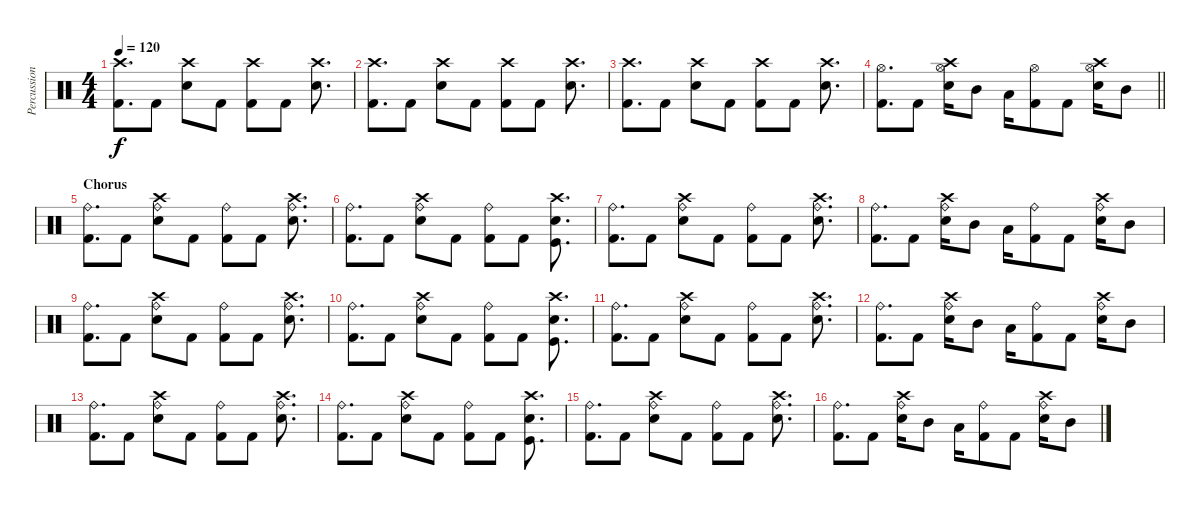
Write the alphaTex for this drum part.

\track ("Percussion" "Percussion") {instrument percussion}
\staff {score}
\articulation defaults
\ts (4 4)
\tempo 120
\clef neutral
\ks c
("Crash high (hit)" "Kick (hit) 2").8{d dy f} "Kick (hit) 2".8 ("Crash high (hit)" "Electric Snare (hit)").8 "Kick (hit) 2".8 ("Crash high (hit)" "Kick (hit) 2").8 "Kick (hit) 2".8 ("Crash high (hit)" "Electric Snare (hit)").8{d} |
("Crash high (hit)" "Kick (hit) 2").8{d} "Kick (hit) 2".8 ("Crash high (hit)" "Electric Snare (hit)").8 "Kick (hit) 2".8 ("Crash high (hit)" "Kick (hit) 2").8 "Kick (hit) 2".8 ("Crash high (hit)" "Electric Snare (hit)").8{d} |
("Crash high (hit)" "Kick (hit) 2").8{d} "Kick (hit) 2".8 ("Crash high (hit)" "Electric Snare (hit)").8 "Kick (hit) 2".8 ("Crash high (hit)" "Kick (hit) 2").8 "Kick (hit) 2".8 ("Crash high (hit)" "Electric Snare (hit)").8{d} |
\barLineRight lightlight
("Hi-Hat (open)" "Kick (hit) 2").8{d} "Kick (hit) 2".8 ("Hi-Hat (open)" "Crash high (hit)" "Electric Snare (hit)").16 "Mid Tom (hit)".8 "Low Tom (hit)".16 ("Hi-Hat (open)" "Kick (hit) 2").8 "Kick (hit) 2".8 ("Hi-Hat (open)" "Crash high (hit)" "Electric Snare (hit)").16 "Mid Tom (hit)".8 |
\section ("" "Chorus")
("Ride (bell)" "Kick (hit) 2").8{d} "Kick (hit) 2".8 ("Ride (bell)" "Crash high (hit)" "Electric Snare (hit)").8 "Kick (hit) 2".8 ("Ride (bell)" "Kick (hit) 2").8 "Kick (hit) 2".8 ("Ride (bell)" "Crash high (hit)" "Electric Snare (hit)").8{d} |
("Ride (bell)" "Kick (hit) 2").8{d} "Kick (hit) 2".8 ("Ride (bell)" "Crash high (hit)" "Electric Snare (hit)").8 "Kick (hit) 2".8 ("Ride (bell)" "Kick (hit) 2").8 "Kick (hit) 2".8 ("Kick (hit)" "Crash high (hit)" "Electric Snare (hit)").8{d} |
("Ride (bell)" "Kick (hit) 2").8{d} "Kick (hit) 2".8 ("Ride (bell)" "Crash high (hit)" "Electric Snare (hit)").8 "Kick (hit) 2".8 ("Ride (bell)" "Kick (hit) 2").8 "Kick (hit) 2".8 ("Ride (bell)" "Crash high (hit)" "Electric Snare (hit)").8{d} |
("Ride (bell)" "Kick (hit) 2").8{d} "Kick (hit) 2".8 ("Ride (bell)" "Crash high (hit)" "Electric Snare (hit)").16 "Mid Tom (hit)".8 "Low Tom (hit)".16 ("Ride (bell)" "Kick (hit) 2").8 "Kick (hit) 2".8 ("Ride (bell)" "Crash high (hit)" "Electric Snare (hit)").16 "Mid Tom (hit)".8 |
("Ride (bell)" "Kick (hit) 2").8{d} "Kick (hit) 2".8 ("Ride (bell)" "Crash high (hit)" "Electric Snare (hit)").8 "Kick (hit) 2".8 ("Ride (bell)" "Kick (hit) 2").8 "Kick (hit) 2".8 ("Ride (bell)" "Crash high (hit)" "Electric Snare (hit)").8{d} |
("Ride (bell)" "Kick (hit) 2").8{d} "Kick (hit) 2".8 ("Ride (bell)" "Crash high (hit)" "Electric Snare (hit)").8 "Kick (hit) 2".8 ("Ride (bell)" "Kick (hit) 2").8 "Kick (hit) 2".8 ("Kick (hit)" "Crash high (hit)" "Electric Snare (hit)").8{d} |
("Ride (bell)" "Kick (hit) 2").8{d} "Kick (hit) 2".8 ("Ride (bell)" "Crash high (hit)" "Electric Snare (hit)").8 "Kick (hit) 2".8 ("Ride (bell)" "Kick (hit) 2").8 "Kick (hit) 2".8 ("Ride (bell)" "Crash high (hit)" "Electric Snare (hit)").8{d} |
("Ride (bell)" "Kick (hit) 2").8{d} "Kick (hit) 2".8 ("Ride (bell)" "Crash high (hit)" "Electric Snare (hit)").16 "Mid Tom (hit)".8 "Low Tom (hit)".16 ("Ride (bell)" "Kick (hit) 2").8 "Kick (hit) 2".8 ("Ride (bell)" "Crash high (hit)" "Electric Snare (hit)").16 "Mid Tom (hit)".8 |
("Ride (bell)" "Kick (hit) 2").8{d} "Kick (hit) 2".8 ("Ride (bell)" "Crash high (hit)" "Electric Snare (hit)").8 "Kick (hit) 2".8 ("Ride (bell)" "Kick (hit) 2").8 "Kick (hit) 2".8 ("Ride (bell)" "Crash high (hit)" "Electric Snare (hit)").8{d} |
("Ride (bell)" "Kick (hit) 2").8{d} "Kick (hit) 2".8 ("Ride (bell)" "Crash high (hit)" "Electric Snare (hit)").8 "Kick (hit) 2".8 ("Ride (bell)" "Kick (hit) 2").8 "Kick (hit) 2".8 ("Kick (hit)" "Crash high (hit)" "Electric Snare (hit)").8{d} |
("Ride (bell)" "Kick (hit) 2").8{d} "Kick (hit) 2".8 ("Ride (bell)" "Crash high (hit)" "Electric Snare (hit)").8 "Kick (hit) 2".8 ("Ride (bell)" "Kick (hit) 2").8 "Kick (hit) 2".8 ("Ride (bell)" "Crash high (hit)" "Electric Snare (hit)").8{d} |
("Ride (bell)" "Kick (hit) 2").8{d} "Kick (hit) 2".8 ("Ride (bell)" "Crash high (hit)" "Electric Snare (hit)").16 "Mid Tom (hit)".8 "Low Tom (hit)".16 ("Ride (bell)" "Kick (hit) 2").8 "Kick (hit) 2".8 ("Ride (bell)" "Crash high (hit)" "Electric Snare (hit)").16 "Mid Tom (hit)".8
